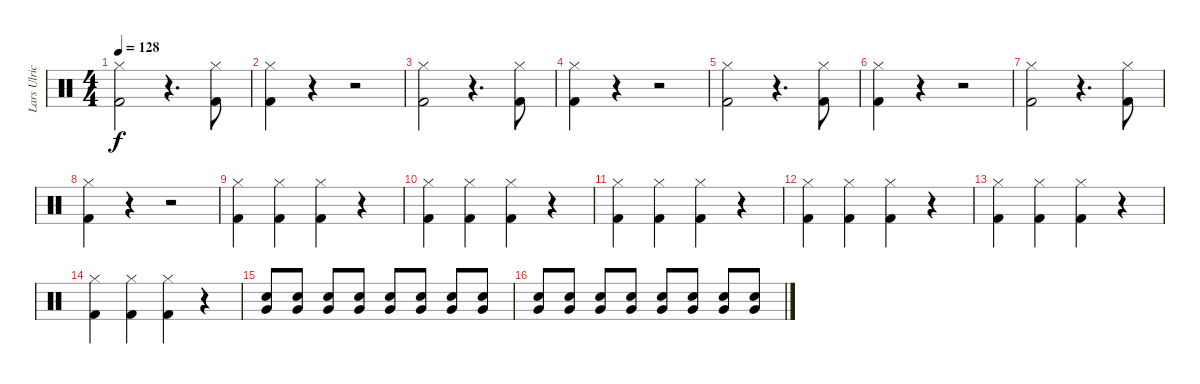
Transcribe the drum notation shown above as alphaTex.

\track ("Lars Ulrich" "Lars Ulric") {instrument percussion}
\staff {score}
\articulation defaults
\ts (4 4)
\tempo 128
\clef neutral
\ks c
("Hi-Hat (closed)" "Kick (hit) 2").2{dy f} r.4{d} ("Hi-Hat (closed)" "Kick (hit) 2").8 |
("Hi-Hat (closed)" "Kick (hit) 2").4 r.4 r.2 |
("Hi-Hat (closed)" "Kick (hit) 2").2 r.4{d} ("Hi-Hat (closed)" "Kick (hit) 2").8 |
("Hi-Hat (closed)" "Kick (hit) 2").4 r.4 r.2 |
("Hi-Hat (closed)" "Kick (hit) 2").2 r.4{d} ("Hi-Hat (closed)" "Kick (hit) 2").8 |
("Hi-Hat (closed)" "Kick (hit) 2").4 r.4 r.2 |
("Hi-Hat (closed)" "Kick (hit) 2").2 r.4{d} ("Hi-Hat (closed)" "Kick (hit) 2").8 |
("Hi-Hat (closed)" "Kick (hit) 2").4 r.4 r.2 |
("Hi-Hat (closed)" "Kick (hit) 2").4 ("Hi-Hat (closed)" "Kick (hit) 2").4 ("Hi-Hat (closed)" "Kick (hit) 2").4 r.4 |
("Hi-Hat (closed)" "Kick (hit) 2").4 ("Hi-Hat (closed)" "Kick (hit) 2").4 ("Hi-Hat (closed)" "Kick (hit) 2").4 r.4 |
("Hi-Hat (closed)" "Kick (hit) 2").4 ("Hi-Hat (closed)" "Kick (hit) 2").4 ("Hi-Hat (closed)" "Kick (hit) 2").4 r.4 |
("Hi-Hat (closed)" "Kick (hit) 2").4 ("Hi-Hat (closed)" "Kick (hit) 2").4 ("Hi-Hat (closed)" "Kick (hit) 2").4 r.4 |
("Hi-Hat (closed)" "Kick (hit) 2").4 ("Hi-Hat (closed)" "Kick (hit) 2").4 ("Hi-Hat (closed)" "Kick (hit) 2").4 r.4 |
("Hi-Hat (closed)" "Kick (hit) 2").4 ("Hi-Hat (closed)" "Kick (hit) 2").4 ("Hi-Hat (closed)" "Kick (hit) 2").4 r.4 |
("Electric Snare (hit)" "Very Low Tom (hit)").8 ("Electric Snare (hit)" "Very Low Tom (hit)").8 ("Electric Snare (hit)" "Very Low Tom (hit)").8 ("Electric Snare (hit)" "Very Low Tom (hit)").8 ("Electric Snare (hit)" "Very Low Tom (hit)").8 ("Electric Snare (hit)" "Very Low Tom (hit)").8 ("Electric Snare (hit)" "Very Low Tom (hit)").8 ("Electric Snare (hit)" "Very Low Tom (hit)").8 |
("Electric Snare (hit)" "Very Low Tom (hit)").8 ("Electric Snare (hit)" "Very Low Tom (hit)").8 ("Electric Snare (hit)" "Very Low Tom (hit)").8 ("Electric Snare (hit)" "Very Low Tom (hit)").8 ("Electric Snare (hit)" "Very Low Tom (hit)").8 ("Electric Snare (hit)" "Very Low Tom (hit)").8 ("Electric Snare (hit)" "Very Low Tom (hit)").8 ("Electric Snare (hit)" "Very Low Tom (hit)").8
